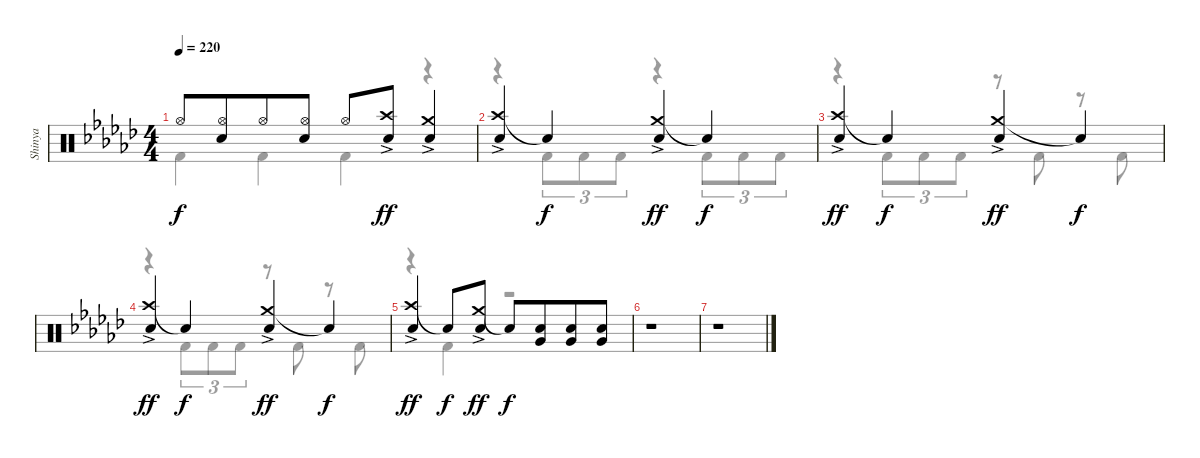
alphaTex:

\track ("Shinya" "Shinya") {instrument percussion}
\staff {score}
\articulation defaults
\voice
\ts (4 4)
\tempo 220
\clef neutral
\ks ebminor "Hi-Hat (open)".8{dy f}
("Hi-Hat (open)" "Snare (hit) 2").8{beam merge} "Hi-Hat (open)".8 ("Hi-Hat (open)" "Snare (hit) 2").8 "Hi-Hat (open)".8 ("Crash high (hit)"{ac} "Snare (hit) 2").8{dy ff} ("Crash medium (hit)"{ac} "Snare (hit) 2").4 |
("Crash high (hit)"{ac} "Snare (hit) 2").4 "Snare (hit)"{t}.4{dy f} ("Crash medium (hit)"{ac} "Snare (hit) 2").4{dy ff} "Snare (hit)"{t}.4{dy f} |
("Crash high (hit)"{ac} "Snare (hit) 2").4{dy ff} "Snare (hit)"{t}.4{dy f} ("Crash medium (hit)"{ac} "Snare (hit) 2").4{dy ff} "Snare (hit)"{t}.4{dy f} |
("Crash high (hit)"{ac} "Snare (hit) 2").4{dy ff} "Snare (hit)"{t}.4{dy f} ("Crash medium (hit)"{ac} "Snare (hit) 2").4{dy ff} "Snare (hit)"{t}.4{dy f} |
("Crash high (hit)"{ac} "Snare (hit) 2").4{dy ff} "Snare (hit)"{t}.8{dy f} ("Crash medium (hit)"{ac} "Snare (hit) 2").8{dy ff} "Snare (hit)"{t}.8{dy f} ("Snare (hit) 2" "Very Low Tom (hit)").8{beam merge} ("Snare (hit) 2" "Very Low Tom (hit)").8 ("Snare (hit) 2" "Very Low Tom (hit)").8 |
r.1 |
r.1
\voice
\clef neutral
\ottava regular
\simile none
\ks ebminor "Kick (hit) 2".4{dy f} "Kick (hit) 2".4 "Kick (hit) 2".4
r.4 |
r.4 "Kick (hit) 2".8{tu (3 2)} "Kick (hit) 2".8{tu (3 2)} "Kick (hit) 2".8{tu (3 2)} r.4 "Kick (hit) 2".8{tu (3 2)} "Kick (hit) 2".8{tu (3 2)} "Kick (hit) 2".8{tu (3 2)} |
r.4 "Kick (hit) 2".8{tu (3 2)} "Kick (hit) 2".8{tu (3 2)} "Kick (hit) 2".8{tu (3 2)} r.8 "Kick (hit) 2".8 r.8 "Kick (hit) 2".8 |
r.4 "Kick (hit) 2".8{tu (3 2)} "Kick (hit) 2".8{tu (3 2)} "Kick (hit) 2".8{tu (3 2)} r.8 "Kick (hit) 2".8 r.8 "Kick (hit) 2".8 |
r.4 "Kick (hit) 2".4 r.2 |
r.1 |
r.1
